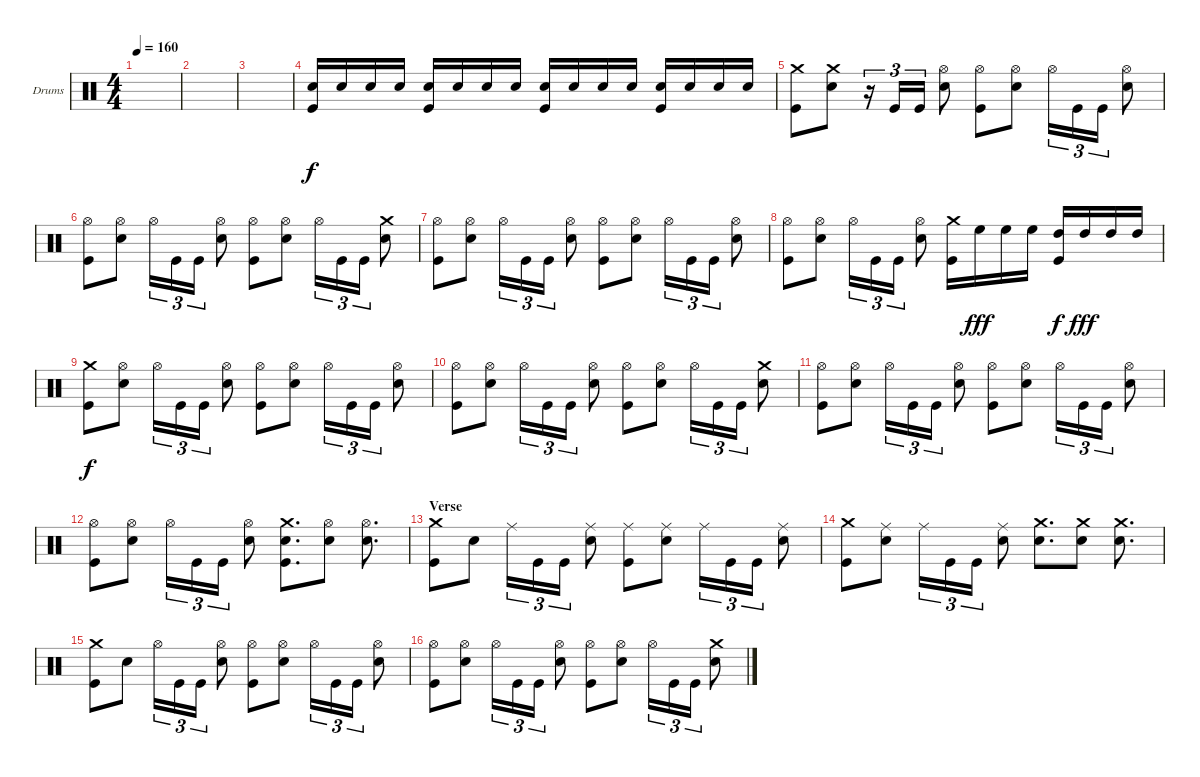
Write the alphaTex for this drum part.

\bracketExtendMode groupsimilarinstruments
\firstSystemTrackNameOrientation horizontal
\otherSystemsTrackNameOrientation horizontal
\track ("Drums" "Drums") {instrument percussion}
\staff {score}
\articulation defaults
\ts (4 4)
\tempo 160
\clef neutral
\ks c
|
|
|
("Snare (hit) 2" "Kick (hit)").16 "Snare (hit) 2".16 "Snare (hit) 2".16 "Snare (hit) 2".16 ("Snare (hit) 2" "Kick (hit)").16 "Snare (hit) 2".16 "Snare (hit) 2".16 "Snare (hit) 2".16 ("Snare (hit) 2" "Kick (hit)").16 "Snare (hit) 2".16 "Snare (hit) 2".16 "Snare (hit) 2".16 ("Snare (hit) 2" "Kick (hit)").16 "Snare (hit) 2".16 "Snare (hit) 2".16 "Snare (hit) 2".16 |
("Crash medium (hit)" "Kick (hit)").8 ("Crash medium (hit)" "Snare (hit) 2").8 r.16{tu (3 2)} "Kick (hit)".16{tu (3 2)} "Kick (hit)".16{tu (3 2)} ("Hi-Hat (open)" "Snare (hit) 2").8 ("Hi-Hat (open)" "Kick (hit)").8 ("Hi-Hat (open)" "Snare (hit) 2").8 "Hi-Hat (open)".16{tu (3 2)} "Kick (hit)".16{tu (3 2)} "Kick (hit)".16{tu (3 2)} ("Hi-Hat (open)" "Snare (hit) 2").8 |
("Hi-Hat (open)" "Kick (hit)").8 ("Hi-Hat (open)" "Snare (hit) 2").8 "Hi-Hat (open)".16{tu (3 2)} "Kick (hit)".16{tu (3 2)} "Kick (hit)".16{tu (3 2)} ("Hi-Hat (open)" "Snare (hit) 2").8 ("Hi-Hat (open)" "Kick (hit)").8 ("Hi-Hat (open)" "Snare (hit) 2").8 "Hi-Hat (open)".16{tu (3 2)} "Kick (hit)".16{tu (3 2)} "Kick (hit)".16{tu (3 2)} ("Crash medium (hit)" "Snare (hit) 2").8 |
("Kick (hit)" "Hi-Hat (open)").8 ("Hi-Hat (open)" "Snare (hit) 2").8 "Hi-Hat (open)".16{tu (3 2)} "Kick (hit)".16{tu (3 2)} "Kick (hit)".16{tu (3 2)} ("Hi-Hat (open)" "Snare (hit) 2").8 ("Hi-Hat (open)" "Kick (hit)").8 ("Hi-Hat (open)" "Snare (hit) 2").8 "Hi-Hat (open)".16{tu (3 2)} "Kick (hit)".16{tu (3 2)} "Kick (hit)".16{tu (3 2)} ("Hi-Hat (open)" "Snare (hit) 2").8 |
("Hi-Hat (open)" "Kick (hit)").8 ("Hi-Hat (open)" "Snare (hit) 2").8 "Hi-Hat (open)".16{tu (3 2)} "Kick (hit)".16{tu (3 2)} "Kick (hit)".16{tu (3 2)} ("Hi-Hat (open)" "Snare (hit) 2").8 ("Crash medium (hit)" "Kick (hit)").16 "High Floor Tom (hit)".16{dy fff} "High Floor Tom (hit)".16 "High Floor Tom (hit)".16 ("High Tom (hit)" "Kick (hit)").16{dy f} "High Tom (hit)".16{dy fff} "High Tom (hit)".16 "High Tom (hit)".16 |
("Crash medium (hit)" "Kick (hit)").8{dy f} ("Hi-Hat (open)" "Snare (hit) 2").8 "Hi-Hat (open)".16{tu (3 2)} "Kick (hit)".16{tu (3 2)} "Kick (hit)".16{tu (3 2)} ("Hi-Hat (open)" "Snare (hit) 2").8 ("Hi-Hat (open)" "Kick (hit)").8 ("Hi-Hat (open)" "Snare (hit) 2").8 "Hi-Hat (open)".16{tu (3 2)} "Kick (hit)".16{tu (3 2)} "Kick (hit)".16{tu (3 2)} ("Hi-Hat (open)" "Snare (hit) 2").8 |
("Hi-Hat (open)" "Kick (hit)").8 ("Hi-Hat (open)" "Snare (hit) 2").8 "Hi-Hat (open)".16{tu (3 2)} "Kick (hit)".16{tu (3 2)} "Kick (hit)".16{tu (3 2)} ("Hi-Hat (open)" "Snare (hit) 2").8 ("Hi-Hat (open)" "Kick (hit)").8 ("Hi-Hat (open)" "Snare (hit) 2").8 "Hi-Hat (open)".16{tu (3 2)} "Kick (hit)".16{tu (3 2)} "Kick (hit)".16{tu (3 2)} ("Crash medium (hit)" "Snare (hit) 2").8 |
("Kick (hit)" "Hi-Hat (open)").8 ("Hi-Hat (open)" "Snare (hit) 2").8 "Hi-Hat (open)".16{tu (3 2)} "Kick (hit)".16{tu (3 2)} "Kick (hit)".16{tu (3 2)} ("Hi-Hat (open)" "Snare (hit) 2").8 ("Hi-Hat (open)" "Kick (hit)").8 ("Hi-Hat (open)" "Snare (hit) 2").8 "Hi-Hat (open)".16{tu (3 2)} "Kick (hit)".16{tu (3 2)} "Kick (hit)".16{tu (3 2)} ("Hi-Hat (open)" "Snare (hit) 2").8 |
("Hi-Hat (open)" "Kick (hit)").8 ("Hi-Hat (open)" "Snare (hit) 2").8 "Hi-Hat (open)".16{tu (3 2)} "Kick (hit)".16{tu (3 2)} "Kick (hit)".16{tu (3 2)} ("Hi-Hat (open)" "Snare (hit) 2").8 ("Crash medium (hit)" "Kick (hit)" "Snare (hit) 2").8{d} ("Hi-Hat (open)" "Snare (hit) 2").8 ("Hi-Hat (open)" "Snare (hit) 2").8{d} |
\section ("" "Verse")
("Crash medium (hit)" "Kick (hit)").8 "Snare (hit) 2".8 "Ride (middle)".16{tu (3 2)} "Kick (hit)".16{tu (3 2)} "Kick (hit)".16{tu (3 2)} ("Ride (middle)" "Snare (hit) 2").8 ("Ride (middle)" "Kick (hit)").8 ("Ride (middle)" "Snare (hit) 2").8 "Ride (middle)".16{tu (3 2)} "Kick (hit)".16{tu (3 2)} "Kick (hit)".16{tu (3 2)} ("Ride (middle)" "Snare (hit) 2").8 |
("Crash medium (hit)" "Kick (hit)").8 ("Ride (middle)" "Snare (hit) 2").8 "Ride (middle)".16{tu (3 2)} "Kick (hit)".16{tu (3 2)} "Kick (hit)".16{tu (3 2)} ("Ride (middle)" "Snare (hit) 2").8 ("Crash medium (hit)" "Snare (hit) 2").8{d} ("Crash medium (hit)" "Snare (hit) 2").8 ("Crash medium (hit)" "Snare (hit) 2").8{d} |
("Crash medium (hit)" "Kick (hit)").8 "Snare (hit) 2".8 "Hi-Hat (open)".16{tu (3 2)} "Kick (hit)".16{tu (3 2)} "Kick (hit)".16{tu (3 2)} ("Hi-Hat (open)" "Snare (hit) 2").8 ("Hi-Hat (open)" "Kick (hit)").8 ("Hi-Hat (open)" "Snare (hit) 2").8 "Hi-Hat (open)".16{tu (3 2)} "Kick (hit)".16{tu (3 2)} "Kick (hit)".16{tu (3 2)} ("Hi-Hat (open)" "Snare (hit) 2").8 |
("Hi-Hat (open)" "Kick (hit)").8 ("Hi-Hat (open)" "Snare (hit) 2").8 "Hi-Hat (open)".16{tu (3 2)} "Kick (hit)".16{tu (3 2)} "Kick (hit)".16{tu (3 2)} ("Hi-Hat (open)" "Snare (hit) 2").8 ("Hi-Hat (open)" "Kick (hit)").8 ("Hi-Hat (open)" "Snare (hit) 2").8 "Hi-Hat (open)".16{tu (3 2)} "Kick (hit)".16{tu (3 2)} "Kick (hit)".16{tu (3 2)} ("Crash medium (hit)" "Snare (hit) 2").8
